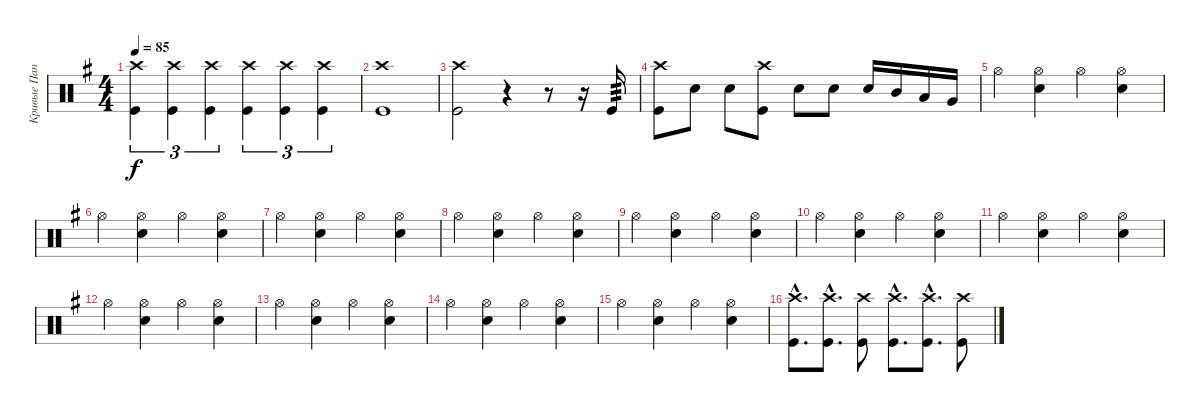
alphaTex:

\track ("Кривые Панковские Ударки (CPU)" "Кривые Пан") {instrument percussion}
\staff {score}
\articulation defaults
\ts (4 4)
\tempo 85
\clef neutral
\ks eminor
("Crash high (hit)" "Kick (hit)").4{tu (3 2) dy f} ("Crash high (hit)" "Kick (hit)").4{tu (3 2)} ("Crash high (hit)" "Kick (hit)").4{tu (3 2)} ("Crash high (hit)" "Kick (hit)").4{tu (3 2)} ("Crash high (hit)" "Kick (hit)").4{tu (3 2)} ("Crash high (hit)" "Kick (hit)").4{tu (3 2)} |
("Crash high (hit)" "Kick (hit)").1 |
("Crash high (hit)" "Kick (hit)").2 r.4 r.8 r.16 "Kick (hit)".16{tp 3} |
("Crash high (hit)" "Kick (hit)").8 "Snare (hit) 2".8 "Snare (hit) 2".8 ("Crash high (hit)" "Kick (hit)").8 "Snare (hit) 2".8 "Snare (hit) 2".8 "Snare (hit) 2".16 "Mid Tom (hit)".16 "Low Tom (hit)".16 "Very Low Tom (hit)".16 |
"Hi-Hat (open)".4 ("Snare (hit) 2" "Hi-Hat (open)").4 "Hi-Hat (open)".4 ("Snare (hit) 2" "Hi-Hat (open)").4 |
"Hi-Hat (open)".4 ("Snare (hit) 2" "Hi-Hat (open)").4 "Hi-Hat (open)".4 ("Snare (hit) 2" "Hi-Hat (open)").4 |
"Hi-Hat (open)".4 ("Snare (hit) 2" "Hi-Hat (open)").4 "Hi-Hat (open)".4 ("Snare (hit) 2" "Hi-Hat (open)").4 |
"Hi-Hat (open)".4 ("Snare (hit) 2" "Hi-Hat (open)").4 "Hi-Hat (open)".4 ("Snare (hit) 2" "Hi-Hat (open)").4 |
"Hi-Hat (open)".4 ("Snare (hit) 2" "Hi-Hat (open)").4 "Hi-Hat (open)".4 ("Snare (hit) 2" "Hi-Hat (open)").4 |
"Hi-Hat (open)".4 ("Snare (hit) 2" "Hi-Hat (open)").4 "Hi-Hat (open)".4 ("Snare (hit) 2" "Hi-Hat (open)").4 |
"Hi-Hat (open)".4 ("Snare (hit) 2" "Hi-Hat (open)").4 "Hi-Hat (open)".4 ("Snare (hit) 2" "Hi-Hat (open)").4 |
"Hi-Hat (open)".4 ("Snare (hit) 2" "Hi-Hat (open)").4 "Hi-Hat (open)".4 ("Snare (hit) 2" "Hi-Hat (open)").4 |
"Hi-Hat (open)".4 ("Snare (hit) 2" "Hi-Hat (open)").4 "Hi-Hat (open)".4 ("Snare (hit) 2" "Hi-Hat (open)").4 |
"Hi-Hat (open)".4 ("Snare (hit) 2" "Hi-Hat (open)").4 "Hi-Hat (open)".4 ("Snare (hit) 2" "Hi-Hat (open)").4 |
"Hi-Hat (open)".4 ("Snare (hit) 2" "Hi-Hat (open)").4 "Hi-Hat (open)".4 ("Snare (hit) 2" "Hi-Hat (open)").4 |
("Crash high (hit)"{hac} "Kick (hit)"{hac}).8{d} ("Crash high (hit)"{hac} "Kick (hit)"{hac}).8{d} ("Crash high (hit)" "Kick (hit)").8 ("Crash high (hit)"{hac} "Kick (hit)"{hac}).8{d} ("Crash high (hit)"{hac} "Kick (hit)"{hac}).8{d} ("Crash high (hit)" "Kick (hit)").8
